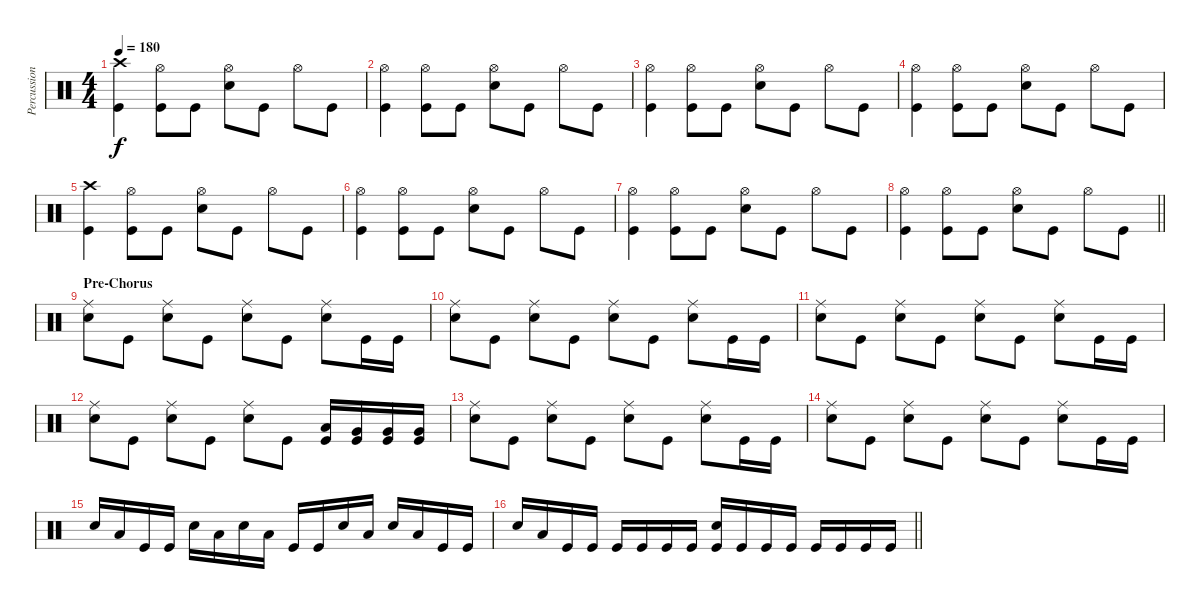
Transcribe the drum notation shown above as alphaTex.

\track ("Percussion" "Percussion") {instrument percussion}
\staff {score}
\articulation defaults
\ts (4 4)
\tempo 180
\clef neutral
\ks c
("Crash high (hit)" "Kick (hit)").4{dy f} ("Hi-Hat (open)" "Kick (hit)").8 "Kick (hit)".8 ("Snare (hit) 2" "Hi-Hat (open)").8 "Kick (hit)".8 "Hi-Hat (open)".8 "Kick (hit)".8 |
("Hi-Hat (open)" "Kick (hit)").4 ("Hi-Hat (open)" "Kick (hit)").8 "Kick (hit)".8 ("Snare (hit) 2" "Hi-Hat (open)").8 "Kick (hit)".8 "Hi-Hat (open)".8 "Kick (hit)".8 |
("Hi-Hat (open)" "Kick (hit)").4 ("Hi-Hat (open)" "Kick (hit)").8 "Kick (hit)".8 ("Snare (hit) 2" "Hi-Hat (open)").8 "Kick (hit)".8 "Hi-Hat (open)".8 "Kick (hit)".8 |
("Hi-Hat (open)" "Kick (hit)").4 ("Hi-Hat (open)" "Kick (hit)").8 "Kick (hit)".8 ("Snare (hit) 2" "Hi-Hat (open)").8 "Kick (hit)".8 "Hi-Hat (open)".8 "Kick (hit)".8 |
("Crash high (hit)" "Kick (hit)").4 ("Hi-Hat (open)" "Kick (hit)").8 "Kick (hit)".8 ("Snare (hit) 2" "Hi-Hat (open)").8 "Kick (hit)".8 "Hi-Hat (open)".8 "Kick (hit)".8 |
("Hi-Hat (open)" "Kick (hit)").4 ("Hi-Hat (open)" "Kick (hit)").8 "Kick (hit)".8 ("Snare (hit) 2" "Hi-Hat (open)").8 "Kick (hit)".8 "Hi-Hat (open)".8 "Kick (hit)".8 |
("Hi-Hat (open)" "Kick (hit)").4 ("Hi-Hat (open)" "Kick (hit)").8 "Kick (hit)".8 ("Snare (hit) 2" "Hi-Hat (open)").8 "Kick (hit)".8 "Hi-Hat (open)".8 "Kick (hit)".8 |
\barLineRight lightlight
("Hi-Hat (open)" "Kick (hit)").4 ("Hi-Hat (open)" "Kick (hit)").8 "Kick (hit)".8 ("Snare (hit) 2" "Hi-Hat (open)").8 "Kick (hit)".8 "Hi-Hat (open)".8 "Kick (hit)".8 |
\section ("" "Pre-Chorus")
("Ride (middle)" "Snare (hit) 2").8 "Kick (hit)".8 ("Ride (middle)" "Snare (hit) 2").8 "Kick (hit)".8 ("Snare (hit) 2" "Ride (middle)").8 "Kick (hit)".8 ("Ride (middle)" "Snare (hit) 2").8 "Kick (hit)".16 "Kick (hit)".16 |
("Ride (middle)" "Snare (hit) 2").8 "Kick (hit)".8 ("Ride (middle)" "Snare (hit) 2").8 "Kick (hit)".8 ("Snare (hit) 2" "Ride (middle)").8 "Kick (hit)".8 ("Ride (middle)" "Snare (hit) 2").8 "Kick (hit)".16 "Kick (hit)".16 |
("Ride (middle)" "Snare (hit) 2").8 "Kick (hit)".8 ("Ride (middle)" "Snare (hit) 2").8 "Kick (hit)".8 ("Snare (hit) 2" "Ride (middle)").8 "Kick (hit)".8 ("Ride (middle)" "Snare (hit) 2").8 "Kick (hit)".16 "Kick (hit)".16 |
("Ride (middle)" "Snare (hit) 2").8 "Kick (hit)".8 ("Ride (middle)" "Snare (hit) 2").8 "Kick (hit)".8 ("Snare (hit) 2" "Ride (middle)").8 "Kick (hit)".8 ("Low Tom (hit)" "Kick (hit)").16 ("Very Low Tom (hit)" "Kick (hit)").16 ("Very Low Tom (hit)" "Kick (hit)").16 ("Very Low Tom (hit)" "Kick (hit)").16 |
("Ride (middle)" "Snare (hit) 2").8 "Kick (hit)".8 ("Ride (middle)" "Snare (hit) 2").8 "Kick (hit)".8 ("Snare (hit) 2" "Ride (middle)").8 "Kick (hit)".8 ("Ride (middle)" "Snare (hit) 2").8 "Kick (hit)".16 "Kick (hit)".16 |
("Ride (middle)" "Snare (hit) 2").8 "Kick (hit)".8 ("Ride (middle)" "Snare (hit) 2").8 "Kick (hit)".8 ("Snare (hit) 2" "Ride (middle)").8 "Kick (hit)".8 ("Ride (middle)" "Snare (hit) 2").8 "Kick (hit)".16 "Kick (hit)".16 |
"Snare (hit) 2".16 "Low Tom (hit)".16 "Kick (hit)".16 "Kick (hit)".16 "Snare (hit) 2".16 "Low Tom (hit)".16 "Snare (hit) 2".16 "Low Tom (hit)".16 "Kick (hit)".16 "Kick (hit)".16 "Snare (hit) 2".16 "Low Tom (hit)".16 "Snare (hit) 2".16 "Low Tom (hit)".16 "Kick (hit)".16 "Kick (hit)".16 |
\barLineRight lightlight "Snare (hit) 2".16 "Low Tom (hit)".16 "Kick (hit)".16 "Kick (hit)".16 "Kick (hit)".16 "Kick (hit)".16 "Kick (hit)".16 "Kick (hit)".16
("Snare (hit) 2" "Kick (hit)").16 "Kick (hit)".16 "Kick (hit)".16 "Kick (hit)".16 "Kick (hit)".16 "Kick (hit)".16 "Kick (hit)".16 "Kick (hit)".16
